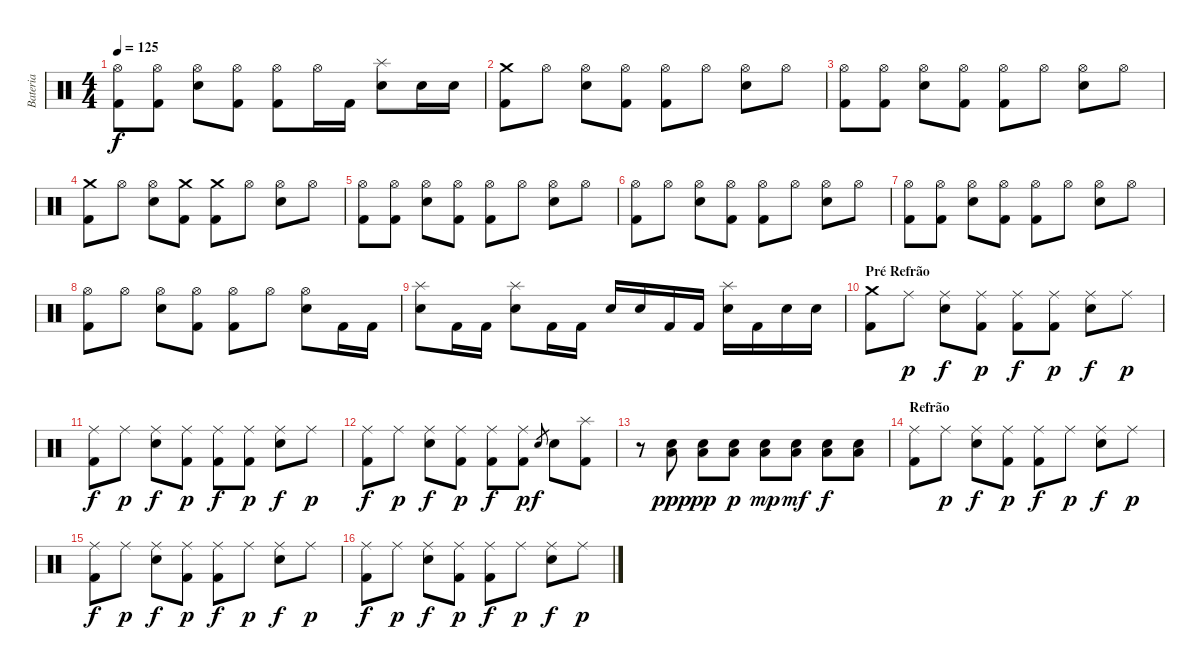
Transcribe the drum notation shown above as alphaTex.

\track ("Bateria" "Bateria") {instrument percussion}
\staff {score}
\articulation defaults
\ts (4 4)
\tempo 125
\clef neutral
\ks c
("Hi-Hat (open)" "Kick (hit) 2").8{dy f} ("Hi-Hat (open)" "Kick (hit) 2").8 ("Hi-Hat (open)" "Electric Snare (hit)").8 ("Hi-Hat (open)" "Kick (hit) 2").8 ("Hi-Hat (open)" "Kick (hit) 2").8 "Hi-Hat (open)".16 "Kick (hit) 2".16 ("Splash (hit)" "Electric Snare (hit)").8 "Electric Snare (hit)".16 "Electric Snare (hit)".16 |
("Crash medium (hit)" "Kick (hit) 2").8 "Hi-Hat (open)".8 ("Hi-Hat (open)" "Electric Snare (hit)").8 ("Hi-Hat (open)" "Kick (hit) 2").8 ("Hi-Hat (open)" "Kick (hit) 2").8 "Hi-Hat (open)".8 ("Hi-Hat (open)" "Electric Snare (hit)").8 "Hi-Hat (open)".8 |
("Hi-Hat (open)" "Kick (hit) 2").8 ("Hi-Hat (open)" "Kick (hit) 2").8 ("Hi-Hat (open)" "Electric Snare (hit)").8 ("Hi-Hat (open)" "Kick (hit) 2").8 ("Hi-Hat (open)" "Kick (hit) 2").8 "Hi-Hat (open)".8 ("Hi-Hat (open)" "Electric Snare (hit)").8 "Hi-Hat (open)".8 |
("Crash medium (hit)" "Kick (hit) 2").8 "Hi-Hat (open)".8 ("Hi-Hat (open)" "Electric Snare (hit)").8 ("Crash medium (hit)" "Kick (hit) 2").8 ("Crash medium (hit)" "Kick (hit) 2").8 "Hi-Hat (open)".8 ("Hi-Hat (open)" "Electric Snare (hit)").8 "Hi-Hat (open)".8 |
("Hi-Hat (open)" "Kick (hit) 2").8 ("Hi-Hat (open)" "Kick (hit) 2").8 ("Hi-Hat (open)" "Electric Snare (hit)").8 ("Hi-Hat (open)" "Kick (hit) 2").8 ("Hi-Hat (open)" "Kick (hit) 2").8 "Hi-Hat (open)".8 ("Hi-Hat (open)" "Electric Snare (hit)").8 "Hi-Hat (open)".8 |
("Hi-Hat (open)" "Kick (hit) 2").8 "Hi-Hat (open)".8 ("Hi-Hat (open)" "Electric Snare (hit)").8 ("Hi-Hat (open)" "Kick (hit) 2").8 ("Hi-Hat (open)" "Kick (hit) 2").8 "Hi-Hat (open)".8 ("Hi-Hat (open)" "Electric Snare (hit)").8 "Hi-Hat (open)".8 |
("Hi-Hat (open)" "Kick (hit) 2").8 ("Hi-Hat (open)" "Kick (hit) 2").8 ("Hi-Hat (open)" "Electric Snare (hit)").8 ("Hi-Hat (open)" "Kick (hit) 2").8 ("Hi-Hat (open)" "Kick (hit) 2").8 "Hi-Hat (open)".8 ("Hi-Hat (open)" "Electric Snare (hit)").8 "Hi-Hat (open)".8 |
("Hi-Hat (open)" "Kick (hit) 2").8 "Hi-Hat (open)".8 ("Hi-Hat (open)" "Electric Snare (hit)").8 ("Hi-Hat (open)" "Kick (hit) 2").8 ("Hi-Hat (open)" "Kick (hit) 2").8 "Hi-Hat (open)".8 ("Hi-Hat (open)" "Electric Snare (hit)").8 "Kick (hit) 2".16 "Kick (hit) 2".16 |
("Splash (hit)" "Electric Snare (hit)").8 "Kick (hit) 2".16 "Kick (hit) 2".16 ("Splash (hit)" "Electric Snare (hit)").8 "Kick (hit) 2".16 "Kick (hit) 2".16 "Electric Snare (hit)".16 "Electric Snare (hit)".16 "Kick (hit) 2".16 "Kick (hit) 2".16 ("Splash (hit)" "Electric Snare (hit)").16 "Kick (hit) 2".16 "Electric Snare (hit)".16 "Electric Snare (hit)".16 |
\section ("" "Pré Refrão")
("Crash medium (hit)" "Kick (hit) 2").8 "Ride (middle)".8{dy p} ("Ride (middle)" "Electric Snare (hit)").8{dy f} ("Ride (middle)" "Kick (hit) 2").8{dy p} ("Ride (middle)" "Kick (hit) 2").8{dy f} ("Ride (middle)" "Kick (hit) 2").8{dy p} ("Ride (middle)" "Electric Snare (hit)").8{dy f} "Ride (middle)".8{dy p} |
("Ride (middle)" "Kick (hit) 2").8{dy f} "Ride (middle)".8{dy p} ("Ride (middle)" "Electric Snare (hit)").8{dy f} ("Ride (middle)" "Kick (hit) 2").8{dy p} ("Ride (middle)" "Kick (hit) 2").8{dy f} ("Ride (middle)" "Kick (hit) 2").8{dy p} ("Ride (middle)" "Electric Snare (hit)").8{dy f} "Ride (middle)".8{dy p} |
("Ride (middle)" "Kick (hit) 2").8{dy f} "Ride (middle)".8{dy p} ("Ride (middle)" "Electric Snare (hit)").8{dy f} ("Ride (middle)" "Kick (hit) 2").8{dy p} ("Ride (middle)" "Kick (hit) 2").8{dy f} ("Ride (middle)" "Kick (hit) 2").8{dy p} "Electric Snare (hit)".8{gr dy f} "Electric Snare (hit)".8 ("Splash (hit)" "Kick (hit) 2").8 |
r.8 ("Snare (hit)" "Low Floor Tom (hit)").8{dy ppp} ("Electric Snare (hit)" "Low Floor Tom (hit)").8{dy pp} ("Electric Snare (hit)" "Low Floor Tom (hit)").8{dy p} ("Electric Snare (hit)" "Low Floor Tom (hit)").8{dy mp} ("Electric Snare (hit)" "Low Floor Tom (hit)").8{dy mf} ("Electric Snare (hit)" "Low Floor Tom (hit)").8{dy f} ("Electric Snare (hit)" "Low Floor Tom (hit)").8 |
\section ("" "Refrão")
("Ride (middle)" "Kick (hit) 2").8 "Ride (middle)".8{dy p} ("Ride (middle)" "Electric Snare (hit)").8{dy f} ("Ride (middle)" "Kick (hit) 2").8{dy p} ("Ride (middle)" "Kick (hit) 2").8{dy f} "Ride (middle)".8{dy p} ("Ride (middle)" "Electric Snare (hit)").8{dy f} "Ride (middle)".8{dy p} |
("Ride (middle)" "Kick (hit) 2").8{dy f} "Ride (middle)".8{dy p} ("Ride (middle)" "Electric Snare (hit)").8{dy f} ("Ride (middle)" "Kick (hit) 2").8{dy p} ("Ride (middle)" "Kick (hit) 2").8{dy f} "Ride (middle)".8{dy p} ("Ride (middle)" "Electric Snare (hit)").8{dy f} "Ride (middle)".8{dy p} |
("Ride (middle)" "Kick (hit) 2").8{dy f} "Ride (middle)".8{dy p} ("Ride (middle)" "Electric Snare (hit)").8{dy f} ("Ride (middle)" "Kick (hit) 2").8{dy p} ("Ride (middle)" "Kick (hit) 2").8{dy f} "Ride (middle)".8{dy p} ("Ride (middle)" "Electric Snare (hit)").8{dy f} "Ride (middle)".8{dy p}
